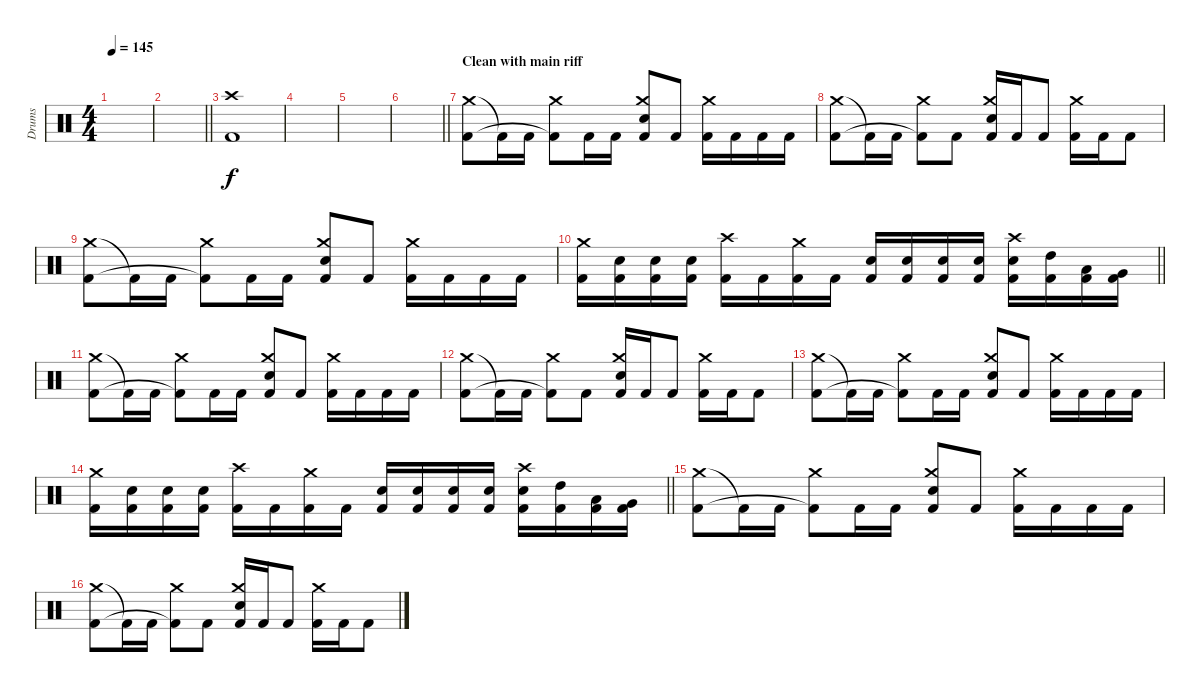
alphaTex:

\track ("Drums" "Drums") {mute instrument percussion}
\staff {score}
\articulation defaults
\ts (4 4)
\tempo 145
\clef neutral
\ks c
|
\barLineRight lightlight
|
("Crash high (hit)" "Kick (hit) 2").1 |
|
|
\barLineRight lightlight
|
\section ("" "Clean with main riff")
("Crash medium (hit)" "Kick (hit) 2").8 "Kick (hit) 2"{t}.16 "Kick (hit) 2".16 ("Crash medium (hit)" "Kick (hit) 2"{t}).8 "Kick (hit) 2".16 "Kick (hit) 2".16 ("Crash medium (hit)" "Electric Snare (hit)" "Kick (hit) 2").8 "Kick (hit) 2".8 ("Crash medium (hit)" "Kick (hit) 2").16 "Kick (hit) 2".16 "Kick (hit) 2".16 "Kick (hit) 2".16 |
("Crash medium (hit)" "Kick (hit) 2").8 "Kick (hit) 2"{t}.16 "Kick (hit) 2".16 ("Crash medium (hit)" "Kick (hit) 2"{t}).8 "Kick (hit) 2".8 ("Crash medium (hit)" "Electric Snare (hit)" "Kick (hit) 2").16 "Kick (hit) 2".16 "Kick (hit) 2".8 ("Crash medium (hit)" "Kick (hit) 2").16 "Kick (hit) 2".16 "Kick (hit) 2".8 |
("Crash medium (hit)" "Kick (hit) 2").8 "Kick (hit) 2"{t}.16 "Kick (hit) 2".16 ("Crash medium (hit)" "Kick (hit) 2"{t}).8 "Kick (hit) 2".16 "Kick (hit) 2".16 ("Crash medium (hit)" "Electric Snare (hit)" "Kick (hit) 2").8 "Kick (hit) 2".8 ("Crash medium (hit)" "Kick (hit) 2").16 "Kick (hit) 2".16 "Kick (hit) 2".16 "Kick (hit) 2".16 |
\barLineRight lightlight
("Crash medium (hit)" "Kick (hit) 2").16 ("Electric Snare (hit)" "Kick (hit) 2").16 ("Electric Snare (hit)" "Kick (hit) 2").16 ("Electric Snare (hit)" "Kick (hit) 2").16 ("Crash high (hit)" "Kick (hit) 2").16 "Kick (hit) 2".16 ("Crash medium (hit)" "Kick (hit) 2").16 "Kick (hit) 2".16 ("Electric Snare (hit)" "Kick (hit) 2").16 ("Electric Snare (hit)" "Kick (hit) 2").16 ("Electric Snare (hit)" "Kick (hit) 2").16 ("Electric Snare (hit)" "Kick (hit) 2").16 ("Crash high (hit)" "Electric Snare (hit)" "Kick (hit) 2").16 ("High Tom (hit)" "Kick (hit) 2").16 ("Low Tom (hit)" "Kick (hit) 2").16 ("Very Low Tom (hit)" "Kick (hit) 2").16 |
("Crash medium (hit)" "Kick (hit) 2").8 "Kick (hit) 2"{t}.16 "Kick (hit) 2".16 ("Crash medium (hit)" "Kick (hit) 2"{t}).8 "Kick (hit) 2".16 "Kick (hit) 2".16 ("Crash medium (hit)" "Electric Snare (hit)" "Kick (hit) 2").8 "Kick (hit) 2".8 ("Crash medium (hit)" "Kick (hit) 2").16 "Kick (hit) 2".16 "Kick (hit) 2".16 "Kick (hit) 2".16 |
("Crash medium (hit)" "Kick (hit) 2").8 "Kick (hit) 2"{t}.16 "Kick (hit) 2".16 ("Crash medium (hit)" "Kick (hit) 2"{t}).8 "Kick (hit) 2".8 ("Crash medium (hit)" "Electric Snare (hit)" "Kick (hit) 2").16 "Kick (hit) 2".16 "Kick (hit) 2".8 ("Crash medium (hit)" "Kick (hit) 2").16 "Kick (hit) 2".16 "Kick (hit) 2".8 |
("Crash medium (hit)" "Kick (hit) 2").8 "Kick (hit) 2"{t}.16 "Kick (hit) 2".16 ("Crash medium (hit)" "Kick (hit) 2"{t}).8 "Kick (hit) 2".16 "Kick (hit) 2".16 ("Crash medium (hit)" "Electric Snare (hit)" "Kick (hit) 2").8 "Kick (hit) 2".8 ("Crash medium (hit)" "Kick (hit) 2").16 "Kick (hit) 2".16 "Kick (hit) 2".16 "Kick (hit) 2".16 |
\barLineRight lightlight
("Crash medium (hit)" "Kick (hit) 2").16 ("Electric Snare (hit)" "Kick (hit) 2").16 ("Electric Snare (hit)" "Kick (hit) 2").16 ("Electric Snare (hit)" "Kick (hit) 2").16 ("Crash high (hit)" "Kick (hit) 2").16 "Kick (hit) 2".16 ("Crash medium (hit)" "Kick (hit) 2").16 "Kick (hit) 2".16 ("Electric Snare (hit)" "Kick (hit) 2").16 ("Electric Snare (hit)" "Kick (hit) 2").16 ("Electric Snare (hit)" "Kick (hit) 2").16 ("Electric Snare (hit)" "Kick (hit) 2").16 ("Crash high (hit)" "Electric Snare (hit)" "Kick (hit) 2").16 ("High Tom (hit)" "Kick (hit) 2").16 ("Low Tom (hit)" "Kick (hit) 2").16 ("Very Low Tom (hit)" "Kick (hit) 2").16 |
("Crash medium (hit)" "Kick (hit) 2").8 "Kick (hit) 2"{t}.16 "Kick (hit) 2".16 ("Crash medium (hit)" "Kick (hit) 2"{t}).8 "Kick (hit) 2".16 "Kick (hit) 2".16 ("Crash medium (hit)" "Electric Snare (hit)" "Kick (hit) 2").8 "Kick (hit) 2".8 ("Crash medium (hit)" "Kick (hit) 2").16 "Kick (hit) 2".16 "Kick (hit) 2".16 "Kick (hit) 2".16 |
("Crash medium (hit)" "Kick (hit) 2").8 "Kick (hit) 2"{t}.16 "Kick (hit) 2".16 ("Crash medium (hit)" "Kick (hit) 2"{t}).8 "Kick (hit) 2".8 ("Crash medium (hit)" "Electric Snare (hit)" "Kick (hit) 2").16 "Kick (hit) 2".16 "Kick (hit) 2".8 ("Crash medium (hit)" "Kick (hit) 2").16 "Kick (hit) 2".16 "Kick (hit) 2".8
